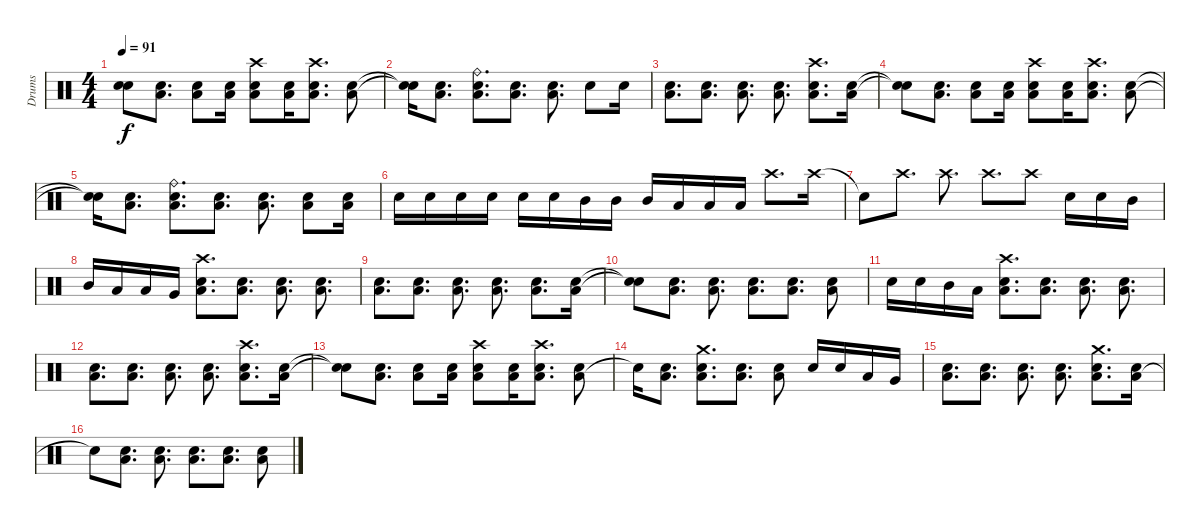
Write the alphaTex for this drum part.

\track ("Drums" "Drums") {instrument percussion}
\staff {score}
\articulation defaults
\ts (4 4)
\tempo 91
\clef neutral
\ks c
("Snare (hit)"{t} "Snare (hit)"{t}).8{dy f} ("Low Tom (hit)" "Electric Snare (hit)").8{d} ("Low Tom (hit)" "Electric Snare (hit)").8 ("Low Tom (hit)" "Electric Snare (hit)").16 ("Crash high (hit)" "Low Tom (hit)" "Electric Snare (hit)").8 ("Low Tom (hit)" "Electric Snare (hit)").16 ("Crash high (hit)" "Low Tom (hit)" "Electric Snare (hit)").8{d} ("Low Tom (hit)" "Electric Snare (hit)").8 |
("Snare (hit)"{t} "Snare (hit)"{t}).16 ("Low Tom (hit)" "Electric Snare (hit)").8{d} ("Ride (bell)" "Low Tom (hit)" "Electric Snare (hit)").8{d} ("Low Tom (hit)" "Electric Snare (hit)").8{d} ("Low Tom (hit)" "Electric Snare (hit)").8{d} "Electric Snare (hit)".8 "Electric Snare (hit)".16 |
("Low Tom (hit)" "Electric Snare (hit)").8{d} ("Low Tom (hit)" "Electric Snare (hit)").8{d} ("Low Tom (hit)" "Electric Snare (hit)").8{d} ("Low Tom (hit)" "Electric Snare (hit)").8{d} ("Crash high (hit)" "Low Tom (hit)" "Electric Snare (hit)").8{d} ("Low Tom (hit)" "Electric Snare (hit)").16 |
("Snare (hit)"{t} "Snare (hit)"{t}).8 ("Low Tom (hit)" "Electric Snare (hit)").8{d} ("Low Tom (hit)" "Electric Snare (hit)").8 ("Low Tom (hit)" "Electric Snare (hit)").16 ("Crash high (hit)" "Low Tom (hit)" "Electric Snare (hit)").8 ("Low Tom (hit)" "Electric Snare (hit)").16 ("Crash high (hit)" "Low Tom (hit)" "Electric Snare (hit)").8{d} ("Low Tom (hit)" "Electric Snare (hit)").8 |
("Snare (hit)"{t} "Snare (hit)"{t}).16 ("Low Tom (hit)" "Electric Snare (hit)").8{d} ("Ride (bell)" "Low Tom (hit)" "Electric Snare (hit)").8{d} ("Low Tom (hit)" "Electric Snare (hit)").8{d} ("Low Tom (hit)" "Electric Snare (hit)").8{d} ("Low Tom (hit)" "Electric Snare (hit)").8 ("Low Tom (hit)" "Electric Snare (hit)").16 |
"Electric Snare (hit)".16 "Electric Snare (hit)".16 "Electric Snare (hit)".16 "Electric Snare (hit)".16 "Electric Snare (hit)".16 "Electric Snare (hit)".16 "Mid Tom (hit)".16 "Mid Tom (hit)".16 "Mid Tom (hit)".16 "Low Tom (hit)".16 "Low Tom (hit)".16 "Low Tom (hit)".16 "Crash high (hit)".8{d} "Crash high (hit)".16 |
"Snare (hit)"{t}.8 "Crash high (hit)".8{d} "Crash high (hit)".8{d} "Crash high (hit)".8{d} "Crash high (hit)".8 "Electric Snare (hit)".16 "Electric Snare (hit)".16 "Mid Tom (hit)".16 |
"Mid Tom (hit)".16 "Low Tom (hit)".16 "Low Tom (hit)".16 "Very Low Tom (hit)".16 ("Crash high (hit)" "Low Tom (hit)" "Electric Snare (hit)").8{d} ("Low Tom (hit)" "Electric Snare (hit)").8{d} ("Low Tom (hit)" "Electric Snare (hit)").8{d} ("Low Tom (hit)" "Electric Snare (hit)").8{d} |
("Low Tom (hit)" "Electric Snare (hit)").8{d} ("Low Tom (hit)" "Electric Snare (hit)").8{d} ("Low Tom (hit)" "Electric Snare (hit)").8{d} ("Low Tom (hit)" "Electric Snare (hit)").8{d} ("Low Tom (hit)" "Electric Snare (hit)").8{d} ("Low Tom (hit)" "Electric Snare (hit)").16 |
("Snare (hit)"{t} "Snare (hit)"{t}).8 ("Low Tom (hit)" "Electric Snare (hit)").8{d} ("Low Tom (hit)" "Electric Snare (hit)").8{d} ("Low Tom (hit)" "Electric Snare (hit)").8{d} ("Low Tom (hit)" "Electric Snare (hit)").8{d} ("Low Tom (hit)" "Electric Snare (hit)").8 |
"Electric Snare (hit)".16 "Electric Snare (hit)".16 "Mid Tom (hit)".16 "Low Tom (hit)".16 ("Crash high (hit)" "Low Tom (hit)" "Electric Snare (hit)").8{d} ("Low Tom (hit)" "Electric Snare (hit)").8{d} ("Low Tom (hit)" "Electric Snare (hit)").8{d} ("Low Tom (hit)" "Electric Snare (hit)").8{d} |
("Low Tom (hit)" "Electric Snare (hit)").8{d} ("Low Tom (hit)" "Electric Snare (hit)").8{d} ("Low Tom (hit)" "Electric Snare (hit)").8{d} ("Low Tom (hit)" "Electric Snare (hit)").8{d} ("Crash high (hit)" "Low Tom (hit)" "Electric Snare (hit)").8{d} ("Low Tom (hit)" "Electric Snare (hit)").16 |
("Snare (hit)"{t} "Snare (hit)"{t}).8 ("Low Tom (hit)" "Electric Snare (hit)").8{d} ("Low Tom (hit)" "Electric Snare (hit)").8 ("Low Tom (hit)" "Electric Snare (hit)").16 ("Crash high (hit)" "Low Tom (hit)" "Electric Snare (hit)").8 ("Low Tom (hit)" "Electric Snare (hit)").16 ("Crash high (hit)" "Low Tom (hit)" "Electric Snare (hit)").8{d} ("Low Tom (hit)" "Electric Snare (hit)").8 |
"Snare (hit)"{t}.16 ("Low Tom (hit)" "Electric Snare (hit)").8{d} ("Crash medium (hit)" "Low Tom (hit)" "Electric Snare (hit)").8{d} ("Low Tom (hit)" "Electric Snare (hit)").8{d} ("Low Tom (hit)" "Electric Snare (hit)").8 "Electric Snare (hit)".16 "Electric Snare (hit)".16 "Low Tom (hit)".16 "Very Low Tom (hit)".16 |
("Low Tom (hit)" "Electric Snare (hit)").8{d} ("Low Tom (hit)" "Electric Snare (hit)").8{d} ("Low Tom (hit)" "Electric Snare (hit)").8{d} ("Low Tom (hit)" "Electric Snare (hit)").8{d} ("Crash medium (hit)" "Low Tom (hit)" "Electric Snare (hit)").8{d} ("Low Tom (hit)" "Electric Snare (hit)").16 |
"Snare (hit)"{t}.8 ("Low Tom (hit)" "Electric Snare (hit)").8{d} ("Low Tom (hit)" "Electric Snare (hit)").8{d} ("Low Tom (hit)" "Electric Snare (hit)").8{d} ("Low Tom (hit)" "Electric Snare (hit)").8{d} ("Low Tom (hit)" "Electric Snare (hit)").8
